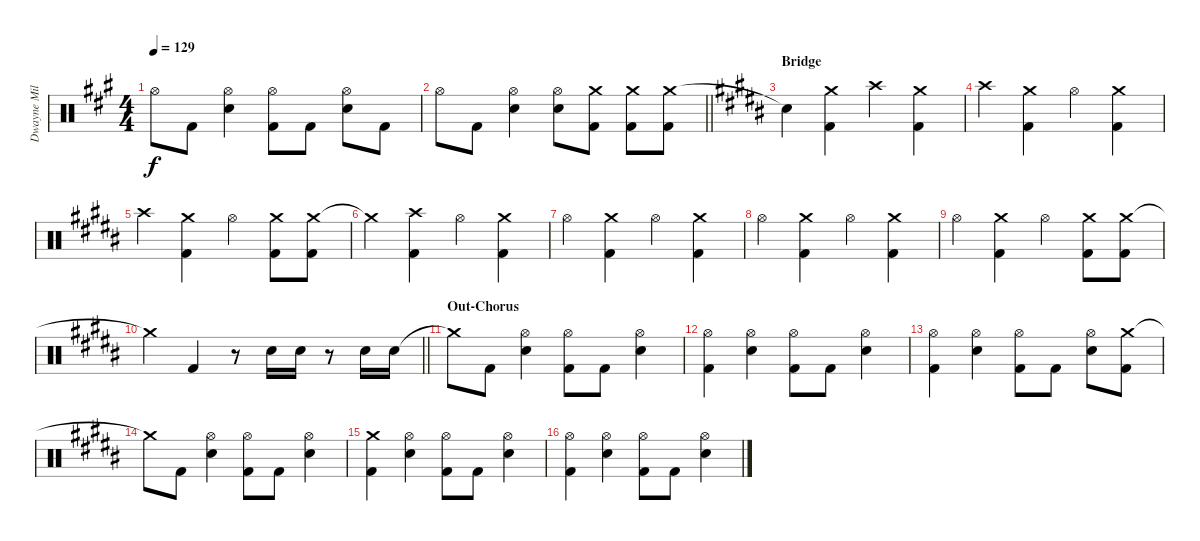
\track ("Dwayne Miller" "Dwayne Mil") {instrument percussion}
\staff {score}
\articulation defaults
\ts (4 4)
\tempo 129
\clef neutral
\ks a "Hi-Hat (open)".8{dy f} "Kick (hit) 2".8
("Hi-Hat (open)" "Snare (hit) 2").4 ("Hi-Hat (open)" "Kick (hit) 2").8 "Kick (hit) 2".8 ("Hi-Hat (open)" "Snare (hit) 2").8 "Kick (hit) 2".8 |
\barLineRight lightlight "Hi-Hat (open)".8 "Kick (hit) 2".8
("Hi-Hat (open)" "Snare (hit) 2").4 ("Hi-Hat (open)" "Snare (hit) 2").8 ("Crash medium (hit)" "Kick (hit) 2").8 ("Crash medium (hit)" "Kick (hit) 2").8 ("Crash medium (hit)" "Kick (hit) 2").8 |
\section ("" "Bridge")
\ks b "Snare (hit)"{t}.4
("Crash medium (hit)" "Kick (hit) 2").4 "Crash high (hit)".4 ("Crash medium (hit)" "Kick (hit) 2").4 |
"Crash high (hit)".4 ("Crash medium (hit)" "Kick (hit) 2").4 "Hi-Hat (open)".4 ("Crash medium (hit)" "Kick (hit) 2").4 |
"Crash high (hit)".4 ("Crash medium (hit)" "Kick (hit) 2").4 "Hi-Hat (open)".4 ("Crash medium (hit)" "Kick (hit) 2").8 ("Crash medium (hit)" "Kick (hit) 2").8 |
"Crash medium (hit)"{t}.4 ("Crash high (hit)" "Kick (hit) 2").4 "Hi-Hat (open)".4 ("Crash medium (hit)" "Kick (hit) 2").4 |
"Hi-Hat (open)".4 ("Crash medium (hit)" "Kick (hit) 2").4 "Hi-Hat (open)".4 ("Crash medium (hit)" "Kick (hit) 2").4 |
"Hi-Hat (open)".4 ("Crash medium (hit)" "Kick (hit) 2").4 "Hi-Hat (open)".4 ("Crash medium (hit)" "Kick (hit) 2").4 |
"Hi-Hat (open)".4 ("Crash medium (hit)" "Kick (hit) 2").4 "Hi-Hat (open)".4 ("Crash medium (hit)" "Kick (hit) 2").8 ("Crash medium (hit)" "Kick (hit) 2").8 |
\barLineRight lightlight "Crash medium (hit)"{t}.4 "Kick (hit) 2".4
r.8 "Snare (hit) 2".16 "Snare (hit) 2".16 r.8 "Snare (hit) 2".16 "Snare (hit) 2".16 |
\section ("" "Out-Chorus")
"Crash medium (hit)"{t}.8 "Kick (hit) 2".8 ("Hi-Hat (open)" "Snare (hit) 2").4 ("Hi-Hat (open)" "Kick (hit) 2").8 "Kick (hit) 2".8 ("Hi-Hat (open)" "Snare (hit) 2").4 |
("Hi-Hat (open)" "Kick (hit) 2").4 ("Hi-Hat (open)" "Snare (hit) 2").4 ("Hi-Hat (open)" "Kick (hit) 2").8 "Kick (hit) 2".8 ("Hi-Hat (open)" "Snare (hit) 2").4 |
("Hi-Hat (open)" "Kick (hit) 2").4 ("Hi-Hat (open)" "Snare (hit) 2").4 ("Hi-Hat (open)" "Kick (hit) 2").8 "Kick (hit) 2".8 ("Hi-Hat (open)" "Snare (hit) 2").8 ("Crash medium (hit)" "Kick (hit) 2").8 |
"Crash medium (hit)"{t}.8 "Kick (hit) 2".8 ("Hi-Hat (open)" "Snare (hit) 2").4 ("Hi-Hat (open)" "Kick (hit) 2").8 "Kick (hit) 2".8 ("Hi-Hat (open)" "Snare (hit) 2").4 |
("Crash medium (hit)" "Kick (hit) 2").4 ("Hi-Hat (open)" "Snare (hit) 2").4 ("Hi-Hat (open)" "Kick (hit) 2").8 "Kick (hit) 2".8 ("Hi-Hat (open)" "Snare (hit) 2").4 |
("Hi-Hat (open)" "Kick (hit) 2").4 ("Hi-Hat (open)" "Snare (hit) 2").4 ("Hi-Hat (open)" "Kick (hit) 2").8 "Kick (hit) 2".8 ("Hi-Hat (open)" "Snare (hit) 2").4
